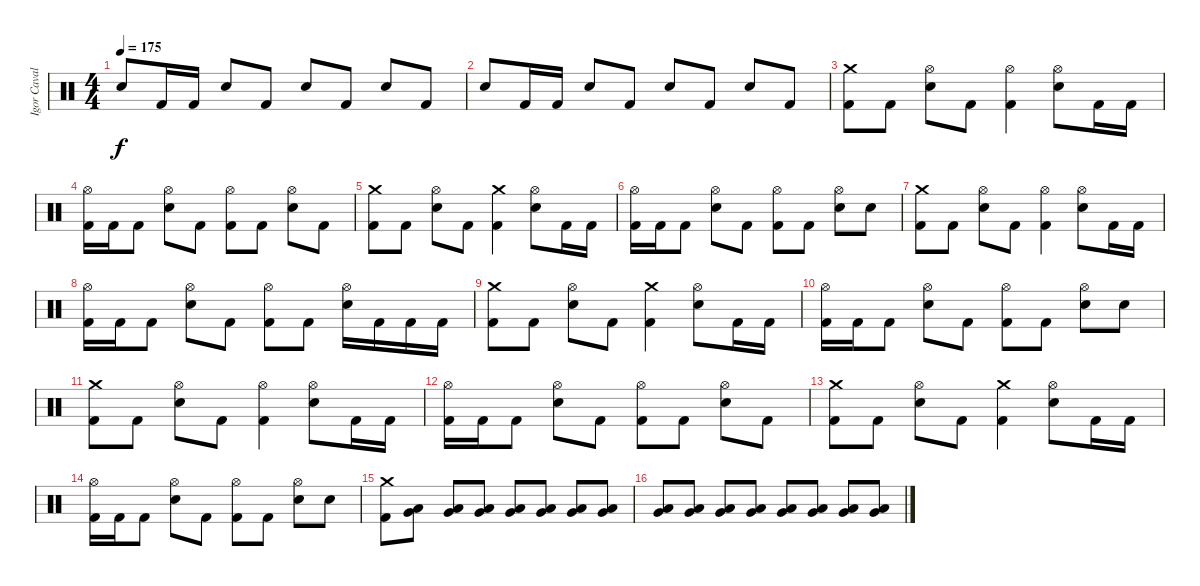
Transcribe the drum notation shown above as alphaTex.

\track ("Igor Cavalera" "Igor Caval") {instrument percussion}
\staff {score}
\articulation defaults
\ts (4 4)
\tempo 175
\clef neutral
\ks c "Electric Snare (hit)".8{dy f} "Kick (hit) 2".16 "Kick (hit) 2".16 "Electric Snare (hit)".8 "Kick (hit) 2".8 "Electric Snare (hit)".8 "Kick (hit) 2".8 "Electric Snare (hit)".8 "Kick (hit) 2".8
|
"Electric Snare (hit)".8 "Kick (hit) 2".16 "Kick (hit) 2".16 "Electric Snare (hit)".8 "Kick (hit) 2".8 "Electric Snare (hit)".8 "Kick (hit) 2".8 "Electric Snare (hit)".8 "Kick (hit) 2".8 |
("Kick (hit) 2" "Crash medium (hit)").8 "Kick (hit) 2".8 ("Hi-Hat (open)" "Electric Snare (hit)").8 "Kick (hit) 2".8 ("Hi-Hat (open)" "Kick (hit) 2").4 ("Hi-Hat (open)" "Electric Snare (hit)").8 "Kick (hit) 2".16 "Kick (hit) 2".16 |
("Hi-Hat (open)" "Kick (hit) 2").16 "Kick (hit) 2".16 "Kick (hit) 2".8 ("Hi-Hat (open)" "Electric Snare (hit)").8 "Kick (hit) 2".8 ("Hi-Hat (open)" "Kick (hit) 2").8 "Kick (hit) 2".8 ("Hi-Hat (open)" "Electric Snare (hit)").8 "Kick (hit) 2".8 |
("Kick (hit) 2" "Crash medium (hit)").8 "Kick (hit) 2".8 ("Hi-Hat (open)" "Electric Snare (hit)").8 "Kick (hit) 2".8 ("Crash medium (hit)" "Kick (hit) 2").4 ("Hi-Hat (open)" "Electric Snare (hit)").8 "Kick (hit) 2".16 "Kick (hit) 2".16 |
("Hi-Hat (open)" "Kick (hit) 2").16 "Kick (hit) 2".16 "Kick (hit) 2".8 ("Hi-Hat (open)" "Electric Snare (hit)").8 "Kick (hit) 2".8 ("Hi-Hat (open)" "Kick (hit) 2").8 "Kick (hit) 2".8 ("Hi-Hat (open)" "Electric Snare (hit)").8 "Electric Snare (hit)".8 |
("Kick (hit) 2" "Crash medium (hit)").8 "Kick (hit) 2".8 ("Hi-Hat (open)" "Electric Snare (hit)").8 "Kick (hit) 2".8 ("Hi-Hat (open)" "Kick (hit) 2").4 ("Hi-Hat (open)" "Electric Snare (hit)").8 "Kick (hit) 2".16 "Kick (hit) 2".16 |
("Hi-Hat (open)" "Kick (hit) 2").16 "Kick (hit) 2".16 "Kick (hit) 2".8 ("Hi-Hat (open)" "Electric Snare (hit)").8 "Kick (hit) 2".8 ("Hi-Hat (open)" "Kick (hit) 2").8 "Kick (hit) 2".8 ("Hi-Hat (open)" "Electric Snare (hit)").16 "Kick (hit) 2".16 "Kick (hit) 2".16 "Kick (hit) 2".16 |
("Kick (hit) 2" "Crash medium (hit)").8 "Kick (hit) 2".8 ("Hi-Hat (open)" "Electric Snare (hit)").8 "Kick (hit) 2".8 ("Crash medium (hit)" "Kick (hit) 2").4 ("Hi-Hat (open)" "Electric Snare (hit)").8 "Kick (hit) 2".16 "Kick (hit) 2".16 |
("Hi-Hat (open)" "Kick (hit) 2").16 "Kick (hit) 2".16 "Kick (hit) 2".8 ("Hi-Hat (open)" "Electric Snare (hit)").8 "Kick (hit) 2".8 ("Hi-Hat (open)" "Kick (hit) 2").8 "Kick (hit) 2".8 ("Hi-Hat (open)" "Electric Snare (hit)").8 "Electric Snare (hit)".8 |
("Kick (hit) 2" "Crash medium (hit)").8 "Kick (hit) 2".8 ("Hi-Hat (open)" "Electric Snare (hit)").8 "Kick (hit) 2".8 ("Hi-Hat (open)" "Kick (hit) 2").4 ("Hi-Hat (open)" "Electric Snare (hit)").8 "Kick (hit) 2".16 "Kick (hit) 2".16 |
("Hi-Hat (open)" "Kick (hit) 2").16 "Kick (hit) 2".16 "Kick (hit) 2".8 ("Hi-Hat (open)" "Electric Snare (hit)").8 "Kick (hit) 2".8 ("Hi-Hat (open)" "Kick (hit) 2").8 "Kick (hit) 2".8 ("Hi-Hat (open)" "Electric Snare (hit)").8 "Kick (hit) 2".8 |
("Kick (hit) 2" "Crash medium (hit)").8 "Kick (hit) 2".8 ("Hi-Hat (open)" "Electric Snare (hit)").8 "Kick (hit) 2".8 ("Crash medium (hit)" "Kick (hit) 2").4 ("Hi-Hat (open)" "Electric Snare (hit)").8 "Kick (hit) 2".16 "Kick (hit) 2".16 |
("Hi-Hat (open)" "Kick (hit) 2").16 "Kick (hit) 2".16 "Kick (hit) 2".8 ("Hi-Hat (open)" "Electric Snare (hit)").8 "Kick (hit) 2".8 ("Hi-Hat (open)" "Kick (hit) 2").8 "Kick (hit) 2".8 ("Hi-Hat (open)" "Electric Snare (hit)").8 "Electric Snare (hit)".8 |
("Kick (hit) 2" "Crash medium (hit)").8 ("Low Tom (hit)" "Very Low Tom (hit)").8 ("Low Tom (hit)" "Very Low Tom (hit)").8 ("Low Tom (hit)" "Very Low Tom (hit)").8 ("Low Tom (hit)" "Very Low Tom (hit)").8 ("Low Tom (hit)" "Very Low Tom (hit)").8 ("Low Tom (hit)" "Very Low Tom (hit)").8 ("Low Tom (hit)" "Very Low Tom (hit)").8 |
("Low Tom (hit)" "Very Low Tom (hit)").8 ("Low Tom (hit)" "Very Low Tom (hit)").8 ("Low Tom (hit)" "Very Low Tom (hit)").8 ("Low Tom (hit)" "Very Low Tom (hit)").8 ("Low Tom (hit)" "Very Low Tom (hit)").8 ("Low Tom (hit)" "Very Low Tom (hit)").8 ("Low Tom (hit)" "Very Low Tom (hit)").8 ("Low Tom (hit)" "Very Low Tom (hit)").8
